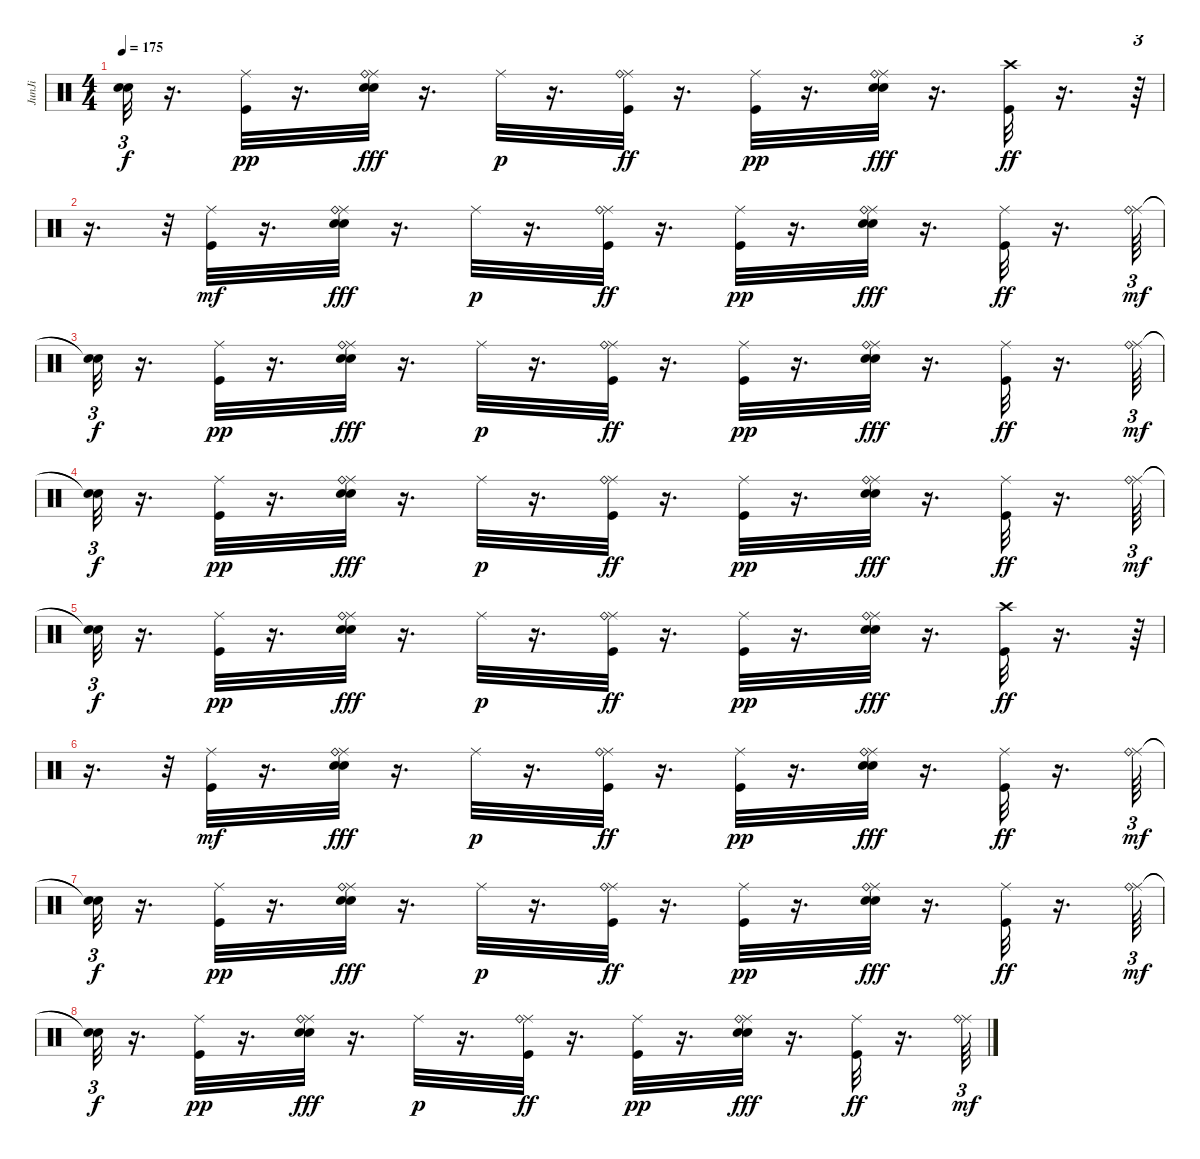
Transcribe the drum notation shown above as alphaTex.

\track ("JunJi" "JunJi") {instrument percussion}
\staff {score}
\articulation defaults
\ts (4 4)
\tempo 175
\clef neutral
\ks c
("Snare (hit)"{t} "Snare (hit)"{t}).32{tu (3 2) dy f} r.16{d} ("Ride (middle)" "Kick (hit)").32{dy pp} r.16{d} ("Ride (middle)" "Ride (bell)" "Electric Snare (hit)" "Snare (hit) 2").32{dy fff} r.16{d} "Ride (middle)".32{dy p} r.16{d} ("Ride (middle)" "Ride (bell)" "Kick (hit)").32{dy ff} r.16{d} ("Ride (middle)" "Kick (hit)").32{dy pp} r.16{d} ("Ride (middle)" "Ride (bell)" "Electric Snare (hit)" "Snare (hit) 2").32{dy fff} r.16{d} ("Crash high (hit)" "Kick (hit)").32{dy ff} r.16{d} r.64{tu (3 2)} |
r.16{d} r.32{tu (3 2)} ("Ride (middle)" "Kick (hit)").32{dy mf} r.16{d} ("Ride (middle)" "Ride (bell)" "Electric Snare (hit)" "Snare (hit) 2").32{dy fff} r.16{d} "Ride (middle)".32{dy p} r.16{d} ("Ride (middle)" "Ride (bell)" "Kick (hit)").32{dy ff} r.16{d} ("Ride (middle)" "Kick (hit)").32{dy pp} r.16{d} ("Ride (middle)" "Ride (bell)" "Electric Snare (hit)" "Snare (hit) 2").32{dy fff} r.16{d} ("Ride (middle)" "Kick (hit)").32{dy ff} r.16{d} ("Ride (middle)" "Ride (bell)").64{tu (3 2) dy mf} |
("Snare (hit)"{t} "Snare (hit)"{t}).32{tu (3 2) dy f} r.16{d} ("Ride (middle)" "Kick (hit)").32{dy pp} r.16{d} ("Ride (middle)" "Ride (bell)" "Electric Snare (hit)" "Snare (hit) 2").32{dy fff} r.16{d} "Ride (middle)".32{dy p} r.16{d} ("Ride (middle)" "Ride (bell)" "Kick (hit)").32{dy ff} r.16{d} ("Ride (middle)" "Kick (hit)").32{dy pp} r.16{d} ("Ride (middle)" "Ride (bell)" "Electric Snare (hit)" "Snare (hit) 2").32{dy fff} r.16{d} ("Ride (middle)" "Kick (hit)").32{dy ff} r.16{d} ("Ride (middle)" "Ride (bell)").64{tu (3 2) dy mf} |
("Snare (hit)"{t} "Snare (hit)"{t}).32{tu (3 2) dy f} r.16{d} ("Ride (middle)" "Kick (hit)").32{dy pp} r.16{d} ("Ride (middle)" "Ride (bell)" "Electric Snare (hit)" "Snare (hit) 2").32{dy fff} r.16{d} "Ride (middle)".32{dy p} r.16{d} ("Ride (middle)" "Ride (bell)" "Kick (hit)").32{dy ff} r.16{d} ("Ride (middle)" "Kick (hit)").32{dy pp} r.16{d} ("Ride (middle)" "Ride (bell)" "Electric Snare (hit)" "Snare (hit) 2").32{dy fff} r.16{d} ("Ride (middle)" "Kick (hit)").32{dy ff} r.16{d} ("Ride (middle)" "Ride (bell)").64{tu (3 2) dy mf} |
("Snare (hit)"{t} "Snare (hit)"{t}).32{tu (3 2) dy f} r.16{d} ("Ride (middle)" "Kick (hit)").32{dy pp} r.16{d} ("Ride (middle)" "Ride (bell)" "Electric Snare (hit)" "Snare (hit) 2").32{dy fff} r.16{d} "Ride (middle)".32{dy p} r.16{d} ("Ride (middle)" "Ride (bell)" "Kick (hit)").32{dy ff} r.16{d} ("Ride (middle)" "Kick (hit)").32{dy pp} r.16{d} ("Ride (middle)" "Ride (bell)" "Electric Snare (hit)" "Snare (hit) 2").32{dy fff} r.16{d} ("Crash high (hit)" "Kick (hit)").32{dy ff} r.16{d} r.64{tu (3 2)} |
r.16{d} r.32{tu (3 2)} ("Ride (middle)" "Kick (hit)").32{dy mf} r.16{d} ("Ride (middle)" "Ride (bell)" "Electric Snare (hit)" "Snare (hit) 2").32{dy fff} r.16{d} "Ride (middle)".32{dy p} r.16{d} ("Ride (middle)" "Ride (bell)" "Kick (hit)").32{dy ff} r.16{d} ("Ride (middle)" "Kick (hit)").32{dy pp} r.16{d} ("Ride (middle)" "Ride (bell)" "Electric Snare (hit)" "Snare (hit) 2").32{dy fff} r.16{d} ("Ride (middle)" "Kick (hit)").32{dy ff} r.16{d} ("Ride (middle)" "Ride (bell)").64{tu (3 2) dy mf} |
("Snare (hit)"{t} "Snare (hit)"{t}).32{tu (3 2) dy f} r.16{d} ("Ride (middle)" "Kick (hit)").32{dy pp} r.16{d} ("Ride (middle)" "Ride (bell)" "Electric Snare (hit)" "Snare (hit) 2").32{dy fff} r.16{d} "Ride (middle)".32{dy p} r.16{d} ("Ride (middle)" "Ride (bell)" "Kick (hit)").32{dy ff} r.16{d} ("Ride (middle)" "Kick (hit)").32{dy pp} r.16{d} ("Ride (middle)" "Ride (bell)" "Electric Snare (hit)" "Snare (hit) 2").32{dy fff} r.16{d} ("Ride (middle)" "Kick (hit)").32{dy ff} r.16{d} ("Ride (middle)" "Ride (bell)").64{tu (3 2) dy mf} |
("Snare (hit)"{t} "Snare (hit)"{t}).32{tu (3 2) dy f} r.16{d} ("Ride (middle)" "Kick (hit)").32{dy pp} r.16{d} ("Ride (middle)" "Ride (bell)" "Electric Snare (hit)" "Snare (hit) 2").32{dy fff} r.16{d} "Ride (middle)".32{dy p} r.16{d} ("Ride (middle)" "Ride (bell)" "Kick (hit)").32{dy ff} r.16{d} ("Ride (middle)" "Kick (hit)").32{dy pp} r.16{d} ("Ride (middle)" "Ride (bell)" "Electric Snare (hit)" "Snare (hit) 2").32{dy fff} r.16{d} ("Ride (middle)" "Kick (hit)").32{dy ff} r.16{d} ("Ride (middle)" "Ride (bell)").64{tu (3 2) dy mf}
